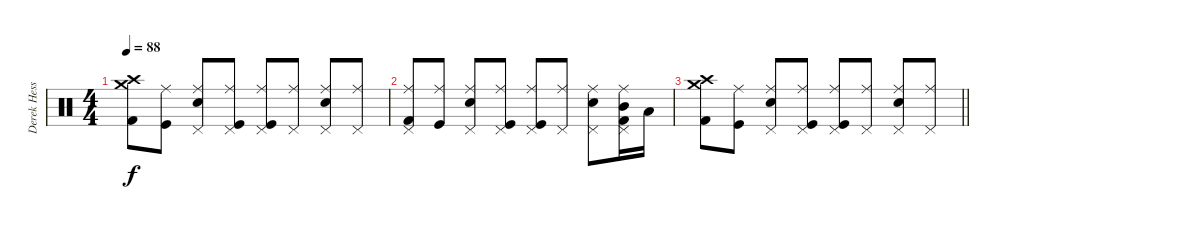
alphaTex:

\track ("Derek Hess" "Derek Hess") {instrument percussion}
\staff {score}
\articulation defaults
\ts (4 4)
\tempo 88
\clef neutral
\ks c
("Crash high (hit)" "Crash medium (hit)" "Kick (hit) 2").8{dy f} ("Ride (middle)" "Kick (hit)").8 ("Ride (middle)" "Pedal Hi-Hat (hit)" "Electric Snare (hit)").8 ("Ride (middle)" "Pedal Hi-Hat (hit)" "Kick (hit)").8 ("Ride (middle)" "Pedal Hi-Hat (hit)" "Kick (hit)").8 ("Ride (middle)" "Pedal Hi-Hat (hit)").8 ("Ride (middle)" "Pedal Hi-Hat (hit)" "Electric Snare (hit)").8 ("Ride (middle)" "Pedal Hi-Hat (hit)").8 |
("Ride (middle)" "Pedal Hi-Hat (hit)" "Kick (hit) 2").8 ("Ride (middle)" "Kick (hit)").8 ("Ride (middle)" "Pedal Hi-Hat (hit)" "Electric Snare (hit)").8 ("Ride (middle)" "Pedal Hi-Hat (hit)" "Kick (hit)").8 ("Ride (middle)" "Pedal Hi-Hat (hit)" "Kick (hit)").8 ("Ride (middle)" "Pedal Hi-Hat (hit)").8 ("Ride (middle)" "Pedal Hi-Hat (hit)" "Electric Snare (hit)").8 ("Ride (middle)" "Pedal Hi-Hat (hit)" "Mid Tom (hit)" "Kick (hit) 2").16 "Low Tom (hit)".16 |
\barLineRight lightlight
("Crash high (hit)" "Crash medium (hit)" "Kick (hit) 2").8 ("Ride (middle)" "Kick (hit)").8 ("Ride (middle)" "Pedal Hi-Hat (hit)" "Electric Snare (hit)").8 ("Ride (middle)" "Pedal Hi-Hat (hit)" "Kick (hit)").8 ("Ride (middle)" "Pedal Hi-Hat (hit)" "Kick (hit)").8 ("Ride (middle)" "Pedal Hi-Hat (hit)").8 ("Ride (middle)" "Pedal Hi-Hat (hit)" "Electric Snare (hit)").8 ("Ride (middle)" "Pedal Hi-Hat (hit)").8
